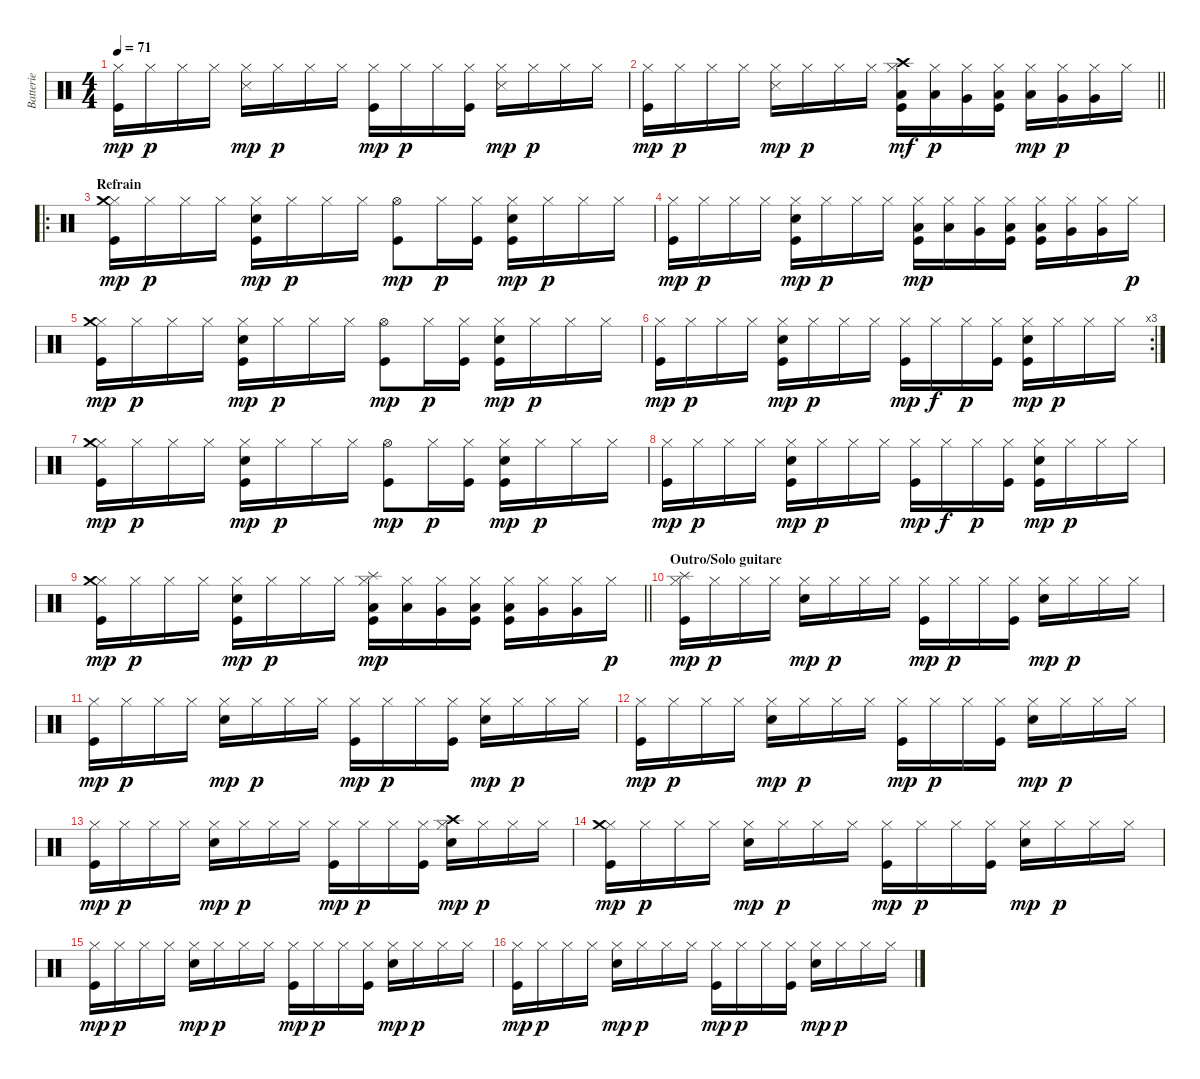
\track ("Batterie" "Batterie") {instrument percussion}
\staff {score}
\articulation defaults
\ts (4 4)
\tempo 71
\clef neutral
\ks c
("Hi-Hat (closed)" "Kick (hit)").16{dy mp} "Hi-Hat (closed)".16{dy p} "Hi-Hat (closed)".16 "Hi-Hat (closed)".16 ("Hi-Hat (closed)" "Snare (side stick) 3").16{dy mp} "Hi-Hat (closed)".16{dy p} "Hi-Hat (closed)".16 "Hi-Hat (closed)".16 ("Hi-Hat (closed)" "Kick (hit)").16{dy mp} "Hi-Hat (closed)".16{dy p} "Hi-Hat (closed)".16 ("Hi-Hat (closed)" "Kick (hit)").16 ("Hi-Hat (closed)" "Snare (side stick) 3").16{dy mp} "Hi-Hat (closed)".16{dy p} "Hi-Hat (closed)".16 "Hi-Hat (closed)".16 |
\barLineRight lightlight
("Hi-Hat (closed)" "Kick (hit)").16{dy mp} "Hi-Hat (closed)".16{dy p} "Hi-Hat (closed)".16 "Hi-Hat (closed)".16 ("Hi-Hat (closed)" "Snare (side stick) 3").16{dy mp} "Hi-Hat (closed)".16{dy p} "Hi-Hat (closed)".16 "Hi-Hat (closed)".16 ("Hi-Hat (closed)" "Crash high (hit)" "Low Tom (hit)" "Kick (hit)").16{dy mf} ("Hi-Hat (closed)" "Low Tom (hit)").16{dy p} ("Hi-Hat (closed)" "Very Low Tom (hit)").16 ("Hi-Hat (closed)" "Low Floor Tom (hit)" "Kick (hit)").16 ("Hi-Hat (closed)" "Low Floor Tom (hit)").16{dy mp} ("Hi-Hat (closed)" "Very Low Tom (hit)").16{dy p} ("Hi-Hat (closed)" "Very Low Tom (hit)").16 "Hi-Hat (closed)".16 |
\ro
\section ("" "Refrain")
("Hi-Hat (closed)" "Crash medium (hit)" "Kick (hit)").16{dy mp} "Hi-Hat (closed)".16{dy p} "Hi-Hat (closed)".16 "Hi-Hat (closed)".16 ("Hi-Hat (closed)" "Electric Snare (hit)" "Kick (hit)").16{dy mp} "Hi-Hat (closed)".16{dy p} "Hi-Hat (closed)".16 "Hi-Hat (closed)".16 ("Hi-Hat (open)" "Kick (hit)").8{dy mp} "Hi-Hat (closed)".16{dy p} ("Hi-Hat (closed)" "Kick (hit)").16 ("Hi-Hat (closed)" "Electric Snare (hit)" "Kick (hit)").16{dy mp} "Hi-Hat (closed)".16{dy p} "Hi-Hat (closed)".16 "Hi-Hat (closed)".16 |
("Hi-Hat (closed)" "Kick (hit)").16{dy mp} "Hi-Hat (closed)".16{dy p} "Hi-Hat (closed)".16 "Hi-Hat (closed)".16 ("Hi-Hat (closed)" "Electric Snare (hit)" "Kick (hit)").16{dy mp} "Hi-Hat (closed)".16{dy p} "Hi-Hat (closed)".16 "Hi-Hat (closed)".16 ("Hi-Hat (closed)" "Low Tom (hit)" "Kick (hit)").16{dy mp} ("Hi-Hat (closed)" "Low Tom (hit)").16 ("Hi-Hat (closed)" "Very Low Tom (hit)").16 ("Hi-Hat (closed)" "Low Floor Tom (hit)" "Kick (hit)").16 ("Hi-Hat (closed)" "Low Floor Tom (hit)" "Kick (hit)").16 ("Hi-Hat (closed)" "Very Low Tom (hit)").16 ("Hi-Hat (closed)" "Very Low Tom (hit)").16 "Hi-Hat (closed)".16{dy p} |
("Hi-Hat (closed)" "Crash medium (hit)" "Kick (hit)").16{dy mp} "Hi-Hat (closed)".16{dy p} "Hi-Hat (closed)".16 "Hi-Hat (closed)".16 ("Hi-Hat (closed)" "Electric Snare (hit)" "Kick (hit)").16{dy mp} "Hi-Hat (closed)".16{dy p} "Hi-Hat (closed)".16 "Hi-Hat (closed)".16 ("Hi-Hat (open)" "Kick (hit)").8{dy mp} "Hi-Hat (closed)".16{dy p} ("Hi-Hat (closed)" "Kick (hit)").16 ("Hi-Hat (closed)" "Electric Snare (hit)" "Kick (hit)").16{dy mp} "Hi-Hat (closed)".16{dy p} "Hi-Hat (closed)".16 "Hi-Hat (closed)".16 |
\rc 3
("Hi-Hat (closed)" "Kick (hit)").16{dy mp} "Hi-Hat (closed)".16{dy p} "Hi-Hat (closed)".16 "Hi-Hat (closed)".16 ("Hi-Hat (closed)" "Electric Snare (hit)" "Kick (hit)").16{dy mp} "Hi-Hat (closed)".16{dy p} "Hi-Hat (closed)".16 "Hi-Hat (closed)".16 ("Hi-Hat (closed)" "Kick (hit)").16{dy mp} "Hi-Hat (closed)".16{dy f} "Hi-Hat (closed)".16{dy p} ("Hi-Hat (closed)" "Kick (hit)").16 ("Hi-Hat (closed)" "Electric Snare (hit)" "Kick (hit)").16{dy mp} "Hi-Hat (closed)".16{dy p} "Hi-Hat (closed)".16 "Hi-Hat (closed)".16 |
("Hi-Hat (closed)" "Crash medium (hit)" "Kick (hit)").16{dy mp} "Hi-Hat (closed)".16{dy p} "Hi-Hat (closed)".16 "Hi-Hat (closed)".16 ("Hi-Hat (closed)" "Electric Snare (hit)" "Kick (hit)").16{dy mp} "Hi-Hat (closed)".16{dy p} "Hi-Hat (closed)".16 "Hi-Hat (closed)".16 ("Hi-Hat (open)" "Kick (hit)").8{dy mp} "Hi-Hat (closed)".16{dy p} ("Hi-Hat (closed)" "Kick (hit)").16 ("Hi-Hat (closed)" "Electric Snare (hit)" "Kick (hit)").16{dy mp} "Hi-Hat (closed)".16{dy p} "Hi-Hat (closed)".16 "Hi-Hat (closed)".16 |
("Hi-Hat (closed)" "Kick (hit)").16{dy mp} "Hi-Hat (closed)".16{dy p} "Hi-Hat (closed)".16 "Hi-Hat (closed)".16 ("Hi-Hat (closed)" "Electric Snare (hit)" "Kick (hit)").16{dy mp} "Hi-Hat (closed)".16{dy p} "Hi-Hat (closed)".16 "Hi-Hat (closed)".16 ("Hi-Hat (closed)" "Kick (hit)").16{dy mp} "Hi-Hat (closed)".16{dy f} "Hi-Hat (closed)".16{dy p} ("Hi-Hat (closed)" "Kick (hit)").16 ("Hi-Hat (closed)" "Electric Snare (hit)" "Kick (hit)").16{dy mp} "Hi-Hat (closed)".16{dy p} "Hi-Hat (closed)".16 "Hi-Hat (closed)".16 |
\barLineRight lightlight
("Hi-Hat (closed)" "Crash medium (hit)" "Kick (hit)").16{dy mp} "Hi-Hat (closed)".16{dy p} "Hi-Hat (closed)".16 "Hi-Hat (closed)".16 ("Hi-Hat (closed)" "Electric Snare (hit)" "Kick (hit)").16{dy mp} "Hi-Hat (closed)".16{dy p} "Hi-Hat (closed)".16 "Hi-Hat (closed)".16 ("Hi-Hat (closed)" "Splash (hit)" "Low Tom (hit)" "Kick (hit)").16{dy mp} ("Hi-Hat (closed)" "Low Tom (hit)").16 ("Hi-Hat (closed)" "Very Low Tom (hit)").16 ("Hi-Hat (closed)" "Low Floor Tom (hit)" "Kick (hit)").16 ("Hi-Hat (closed)" "Low Floor Tom (hit)" "Kick (hit)").16 ("Hi-Hat (closed)" "Very Low Tom (hit)").16 ("Hi-Hat (closed)" "Very Low Tom (hit)").16 "Hi-Hat (closed)".16{dy p} |
\section ("" "Outro/Solo guitare")
("Hi-Hat (closed)" "Splash (hit)" "Kick (hit)").16{dy mp} "Hi-Hat (closed)".16{dy p} "Hi-Hat (closed)".16 "Hi-Hat (closed)".16 ("Hi-Hat (closed)" "Electric Snare (hit)").16{dy mp} "Hi-Hat (closed)".16{dy p} "Hi-Hat (closed)".16 "Hi-Hat (closed)".16 ("Hi-Hat (closed)" "Kick (hit)").16{dy mp} "Hi-Hat (closed)".16{dy p} "Hi-Hat (closed)".16 ("Hi-Hat (closed)" "Kick (hit)").16 ("Hi-Hat (closed)" "Electric Snare (hit)").16{dy mp} "Hi-Hat (closed)".16{dy p} "Hi-Hat (closed)".16 "Hi-Hat (closed)".16 |
("Hi-Hat (closed)" "Kick (hit)").16{dy mp} "Hi-Hat (closed)".16{dy p} "Hi-Hat (closed)".16 "Hi-Hat (closed)".16 ("Hi-Hat (closed)" "Electric Snare (hit)").16{dy mp} "Hi-Hat (closed)".16{dy p} "Hi-Hat (closed)".16 "Hi-Hat (closed)".16 ("Hi-Hat (closed)" "Kick (hit)").16{dy mp} "Hi-Hat (closed)".16{dy p} "Hi-Hat (closed)".16 ("Hi-Hat (closed)" "Kick (hit)").16 ("Hi-Hat (closed)" "Electric Snare (hit)").16{dy mp} "Hi-Hat (closed)".16{dy p} "Hi-Hat (closed)".16 "Hi-Hat (closed)".16 |
("Hi-Hat (closed)" "Kick (hit)").16{dy mp} "Hi-Hat (closed)".16{dy p} "Hi-Hat (closed)".16 "Hi-Hat (closed)".16 ("Hi-Hat (closed)" "Electric Snare (hit)").16{dy mp} "Hi-Hat (closed)".16{dy p} "Hi-Hat (closed)".16 "Hi-Hat (closed)".16 ("Hi-Hat (closed)" "Kick (hit)").16{dy mp} "Hi-Hat (closed)".16{dy p} "Hi-Hat (closed)".16 ("Hi-Hat (closed)" "Kick (hit)").16 ("Hi-Hat (closed)" "Electric Snare (hit)").16{dy mp} "Hi-Hat (closed)".16{dy p} "Hi-Hat (closed)".16 "Hi-Hat (closed)".16 |
("Hi-Hat (closed)" "Kick (hit)").16{dy mp} "Hi-Hat (closed)".16{dy p} "Hi-Hat (closed)".16 "Hi-Hat (closed)".16 ("Hi-Hat (closed)" "Electric Snare (hit)").16{dy mp} "Hi-Hat (closed)".16{dy p} "Hi-Hat (closed)".16 "Hi-Hat (closed)".16 ("Hi-Hat (closed)" "Kick (hit)").16{dy mp} "Hi-Hat (closed)".16{dy p} "Hi-Hat (closed)".16 ("Hi-Hat (closed)" "Kick (hit)").16 ("Hi-Hat (closed)" "Crash high (hit)" "Electric Snare (hit)").16{dy mp} "Hi-Hat (closed)".16{dy p} "Hi-Hat (closed)".16 "Hi-Hat (closed)".16 |
("Hi-Hat (closed)" "Crash medium (hit)" "Kick (hit)").16{dy mp} "Hi-Hat (closed)".16{dy p} "Hi-Hat (closed)".16 "Hi-Hat (closed)".16 ("Hi-Hat (closed)" "Electric Snare (hit)").16{dy mp} "Hi-Hat (closed)".16{dy p} "Hi-Hat (closed)".16 "Hi-Hat (closed)".16 ("Hi-Hat (closed)" "Kick (hit)").16{dy mp} "Hi-Hat (closed)".16{dy p} "Hi-Hat (closed)".16 ("Hi-Hat (closed)" "Kick (hit)").16 ("Hi-Hat (closed)" "Electric Snare (hit)").16{dy mp} "Hi-Hat (closed)".16{dy p} "Hi-Hat (closed)".16 "Hi-Hat (closed)".16 |
("Hi-Hat (closed)" "Kick (hit)").16{dy mp} "Hi-Hat (closed)".16{dy p} "Hi-Hat (closed)".16 "Hi-Hat (closed)".16 ("Hi-Hat (closed)" "Electric Snare (hit)").16{dy mp} "Hi-Hat (closed)".16{dy p} "Hi-Hat (closed)".16 "Hi-Hat (closed)".16 ("Hi-Hat (closed)" "Kick (hit)").16{dy mp} "Hi-Hat (closed)".16{dy p} "Hi-Hat (closed)".16 ("Hi-Hat (closed)" "Kick (hit)").16 ("Hi-Hat (closed)" "Electric Snare (hit)").16{dy mp} "Hi-Hat (closed)".16{dy p} "Hi-Hat (closed)".16 "Hi-Hat (closed)".16 |
("Hi-Hat (closed)" "Kick (hit)").16{dy mp} "Hi-Hat (closed)".16{dy p} "Hi-Hat (closed)".16 "Hi-Hat (closed)".16 ("Hi-Hat (closed)" "Electric Snare (hit)").16{dy mp} "Hi-Hat (closed)".16{dy p} "Hi-Hat (closed)".16 "Hi-Hat (closed)".16 ("Hi-Hat (closed)" "Kick (hit)").16{dy mp} "Hi-Hat (closed)".16{dy p} "Hi-Hat (closed)".16 ("Hi-Hat (closed)" "Kick (hit)").16 ("Hi-Hat (closed)" "Electric Snare (hit)").16{dy mp} "Hi-Hat (closed)".16{dy p} "Hi-Hat (closed)".16 "Hi-Hat (closed)".16
